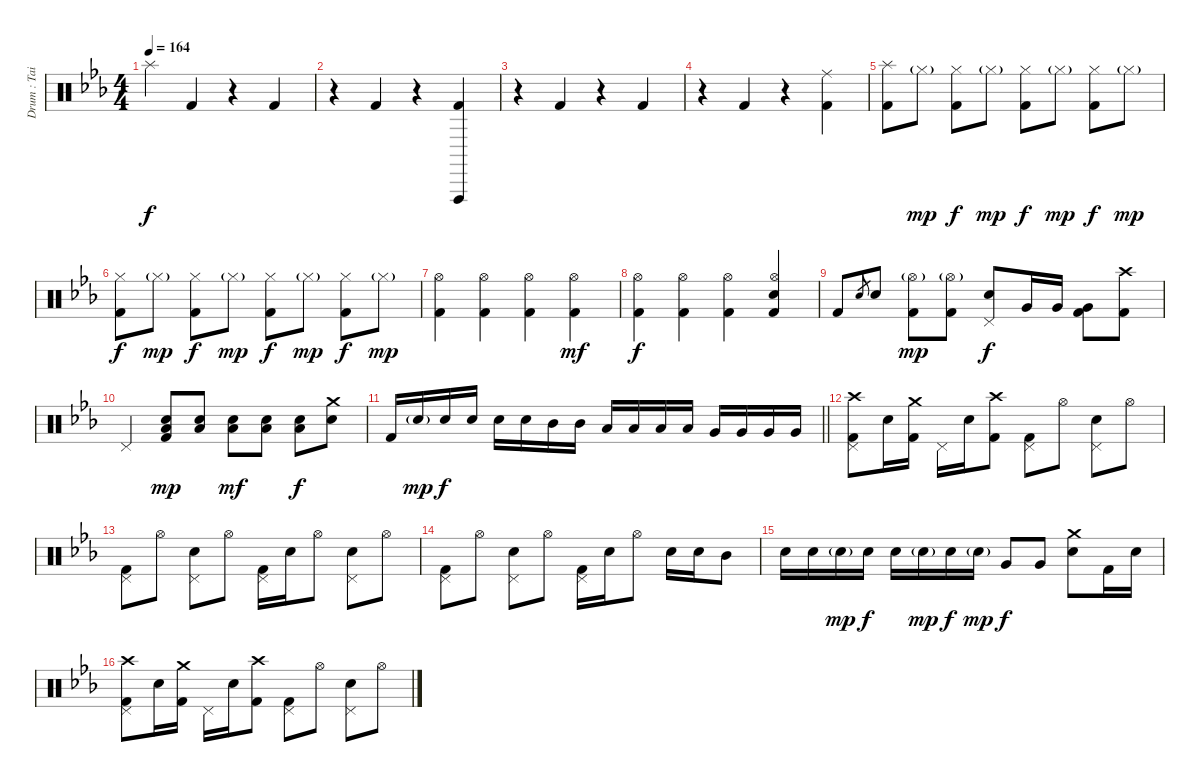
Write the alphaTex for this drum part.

\track ("Drum : Tainaka Ritsu - Chan" "Drum : Tai") {instrument percussion}
\staff {score}
\articulation defaults
\ts (4 4)
\tempo 164
\clef neutral
\ks eb "Splash (hit)".4{dy f} "Kick (hit) 2".4
r.4 "Kick (hit) 2".4 |
r.4 "Kick (hit) 2".4 r.4 ("Vibraslap (hit)" "Kick (hit) 2").4 |
r.4 "Kick (hit) 2".4 r.4 "Kick (hit) 2".4 |
r.4 "Kick (hit) 2".4 r.4 ("Ride (middle)" "Kick (hit) 2").4 |
("Splash (hit)" "Kick (hit) 2").8 "Hi-Hat (closed)"{g}.8{dy mp} ("Hi-Hat (closed)" "Kick (hit) 2").8{dy f} "Hi-Hat (closed)"{g}.8{dy mp} ("Hi-Hat (closed)" "Kick (hit) 2").8{dy f} "Hi-Hat (closed)"{g}.8{dy mp} ("Hi-Hat (closed)" "Kick (hit) 2").8{dy f} "Hi-Hat (closed)"{g}.8{dy mp} |
("Hi-Hat (closed)" "Kick (hit) 2").8{dy f} "Hi-Hat (closed)"{g}.8{dy mp} ("Hi-Hat (closed)" "Kick (hit) 2").8{dy f} "Hi-Hat (closed)"{g}.8{dy mp} ("Hi-Hat (closed)" "Kick (hit) 2").8{dy f} "Hi-Hat (closed)"{g}.8{dy mp} ("Hi-Hat (closed)" "Kick (hit) 2").8{dy f} "Hi-Hat (closed)"{g}.8{dy mp} |
("Hi-Hat (open)" "Kick (hit) 2").4 ("Hi-Hat (open)" "Kick (hit) 2").4 ("Hi-Hat (open)" "Kick (hit) 2").4 ("Hi-Hat (open)" "Kick (hit) 2").4{dy mf} |
("Hi-Hat (open)" "Kick (hit) 2").4{dy f} ("Hi-Hat (open)" "Kick (hit) 2").4 ("Hi-Hat (open)" "Kick (hit) 2").4 ("Hi-Hat (open)" "Electric Snare (hit)" "Kick (hit) 2").4 |
"Kick (hit) 2".8 "Electric Snare (hit)".8{gr} "Electric Snare (hit)".8 ("Hi-Hat (open)"{g} "Kick (hit) 2").8{dy mp} ("Hi-Hat (open)"{g} "Kick (hit) 2").8 ("Pedal Hi-Hat (hit)" "Electric Snare (hit)").8{dy f} "Very Low Tom (hit)".16 "Very Low Tom (hit)".16 ("Very Low Tom (hit)" "Kick (hit) 2").8 ("Crash high (hit)" "Kick (hit) 2").8 |
"Pedal Hi-Hat (hit)".4 ("Electric Snare (hit)" "Low Floor Tom (hit)" "Kick (hit) 2").8{dy mp} ("Electric Snare (hit)" "Low Floor Tom (hit)").8 ("Electric Snare (hit)" "Low Floor Tom (hit)").8{dy mf} ("Electric Snare (hit)" "Low Floor Tom (hit)").8 ("Electric Snare (hit)" "Low Floor Tom (hit)").8{dy f} ("Crash medium (hit)" "Electric Snare (hit)").8 |
\barLineRight lightlight "Kick (hit) 2".16 "Electric Snare (hit)"{g}.16{dy mp} "Electric Snare (hit)".16{dy f} "Electric Snare (hit)".16 "Electric Snare (hit)".16 "Electric Snare (hit)".16 "Mid Tom (hit)".16 "Mid Tom (hit)".16 "Low Tom (hit)".16 "Low Tom (hit)".16 "Low Tom (hit)".16 "Low Tom (hit)".16 "Very Low Tom (hit)".16 "Very Low Tom (hit)".16 "Very Low Tom (hit)".16 "Very Low Tom (hit)".16
|
("Crash high (hit)" "Pedal Hi-Hat (hit)" "Kick (hit) 2").8 "Electric Snare (hit)".16 ("Crash medium (hit)" "Kick (hit) 2").16 "Pedal Hi-Hat (hit)".16 "Electric Snare (hit)".16 ("Crash high (hit)" "Kick (hit) 2").8 ("Pedal Hi-Hat (hit)" "Kick (hit) 2").8 "Hi-Hat (open)".8 ("Pedal Hi-Hat (hit)" "Electric Snare (hit)").8 "Hi-Hat (open)".8 |
("Pedal Hi-Hat (hit)" "Kick (hit) 2").8 "Hi-Hat (open)".8 ("Pedal Hi-Hat (hit)" "Electric Snare (hit)").8 "Hi-Hat (open)".8 ("Pedal Hi-Hat (hit)" "Kick (hit) 2").16 "Electric Snare (hit)".16 "Hi-Hat (open)".8 ("Pedal Hi-Hat (hit)" "Electric Snare (hit)").8 "Hi-Hat (open)".8 |
("Pedal Hi-Hat (hit)" "Kick (hit) 2").8 "Hi-Hat (open)".8 ("Pedal Hi-Hat (hit)" "Electric Snare (hit)").8 "Hi-Hat (open)".8 ("Pedal Hi-Hat (hit)" "Kick (hit) 2").16 "Electric Snare (hit)".16 "Hi-Hat (open)".8 "Electric Snare (hit)".16 "Electric Snare (hit)".16 "Mid Tom (hit)".8 |
"Electric Snare (hit)".16 "Electric Snare (hit)".16 "Electric Snare (hit)"{g}.16{dy mp} "Electric Snare (hit)".16{dy f} "Electric Snare (hit)".16 "Electric Snare (hit)"{g}.16{dy mp} "Electric Snare (hit)".16{dy f} "Electric Snare (hit)"{g}.16{dy mp} "Very Low Tom (hit)".8{dy f} "Very Low Tom (hit)".8 ("Crash medium (hit)" "Electric Snare (hit)").8 "Kick (hit) 2".16 "Electric Snare (hit)".16 |
("Crash high (hit)" "Pedal Hi-Hat (hit)" "Kick (hit) 2").8 "Electric Snare (hit)".16 ("Crash medium (hit)" "Kick (hit) 2").16 "Pedal Hi-Hat (hit)".16 "Electric Snare (hit)".16 ("Crash high (hit)" "Kick (hit) 2").8 ("Pedal Hi-Hat (hit)" "Kick (hit) 2").8 "Hi-Hat (open)".8 ("Pedal Hi-Hat (hit)" "Electric Snare (hit)").8 "Hi-Hat (open)".8
